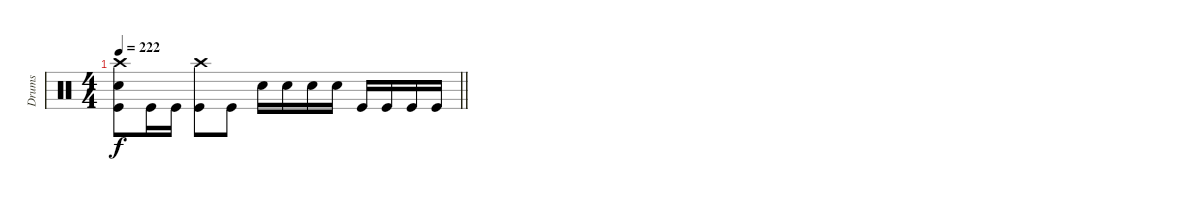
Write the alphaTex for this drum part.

\track ("Drums" "Drums") {instrument percussion}
\staff
\articulation defaults
\ts (4 4)
\tempo 222
\clef neutral
\barLineRight lightlight
\ks c
("Crash high (hit)" "Electric Snare (hit)" "Kick (hit)").8{dy f} "Kick (hit)".16 "Kick (hit)".16 ("Crash high (hit)" "Kick (hit)").8 "Kick (hit)".8 "Electric Snare (hit)".16 "Electric Snare (hit)".16 "Electric Snare (hit)".16 "Electric Snare (hit)".16 "Kick (hit)".16 "Kick (hit)".16 "Kick (hit)".16 "Kick (hit)".16
